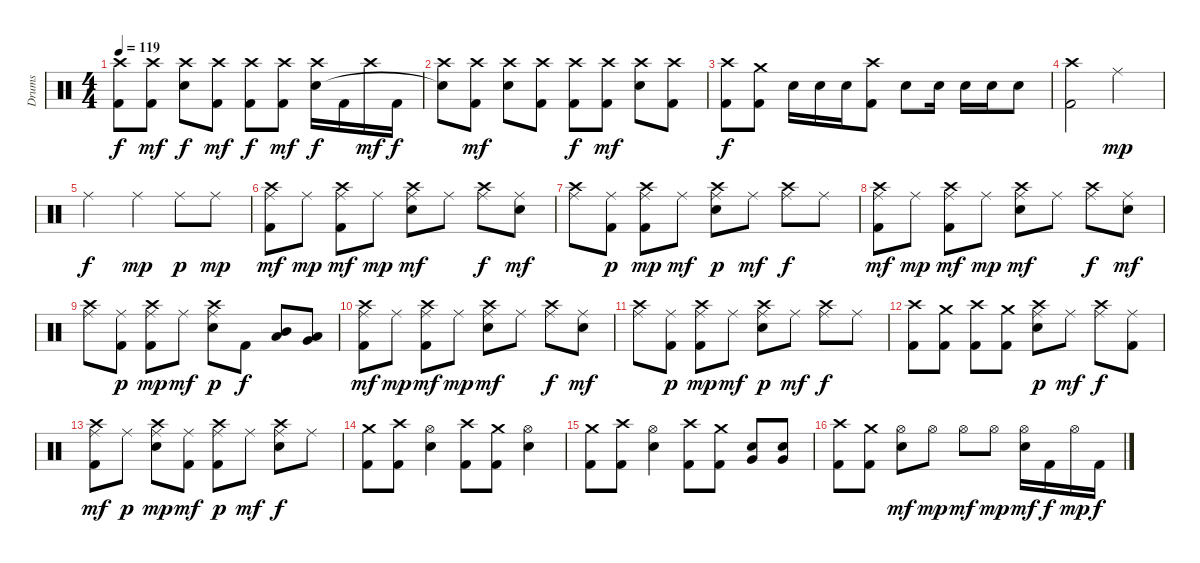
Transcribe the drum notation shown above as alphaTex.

\track ("Drums" "Drums") {instrument percussion}
\staff {score}
\articulation defaults
\ts (4 4)
\tempo 119
\clef neutral
\ks c
("Crash high (hit)" "Kick (hit) 2").8{dy f} ("Crash high (hit)" "Kick (hit) 2").8{dy mf} ("Crash high (hit)" "Electric Snare (hit)").8{dy f} ("Crash high (hit)" "Kick (hit) 2").8{dy mf} ("Crash high (hit)" "Kick (hit) 2").8{dy f} ("Crash high (hit)" "Kick (hit) 2").8{dy mf} ("Crash high (hit)" "Electric Snare (hit)").16{dy f} "Kick (hit) 2".16 "Crash high (hit)".16{dy mf} "Kick (hit) 2".16{dy f} |
("Crash high (hit)" "Snare (hit)"{t}).8 ("Crash high (hit)" "Kick (hit) 2").8{dy mf} ("Crash high (hit)" "Electric Snare (hit)").8 ("Crash high (hit)" "Kick (hit) 2").8 ("Crash high (hit)" "Kick (hit) 2").8{dy f} ("Crash high (hit)" "Kick (hit) 2").8{dy mf} ("Crash high (hit)" "Electric Snare (hit)").8 ("Crash high (hit)" "Kick (hit) 2").8 |
("Crash high (hit)" "Kick (hit) 2").8{dy f} ("Crash medium (hit)" "Kick (hit) 2").8 "Electric Snare (hit)".16 "Electric Snare (hit)".16 "Electric Snare (hit)".16 ("Crash high (hit)" "Kick (hit) 2").8 "Electric Snare (hit)".8 "Electric Snare (hit)".16 "Electric Snare (hit)".16 "Electric Snare (hit)".16 "Electric Snare (hit)".8 |
("Crash high (hit)" "Kick (hit) 2").2 "Ride (middle)".2{dy mp} |
"Ride (middle)".2{dy f} "Ride (middle)".4{dy mp} "Ride (middle)".8{dy p} "Ride (middle)".8{dy mp} |
("Crash high (hit)" "Ride (middle)" "Kick (hit) 2").8{dy mf} "Ride (middle)".8{dy mp} ("Crash high (hit)" "Ride (middle)" "Kick (hit) 2").8{dy mf} "Ride (middle)".8{dy mp} ("Crash high (hit)" "Ride (middle)" "Electric Snare (hit)").8{dy mf} "Ride (middle)".8 ("Crash high (hit)" "Ride (middle)").8{dy f} ("Ride (middle)" "Electric Snare (hit)").8{dy mf} |
("Crash high (hit)" "Ride (middle)").8 ("Ride (middle)" "Kick (hit) 2").8{dy p} ("Crash high (hit)" "Ride (middle)" "Kick (hit) 2").8{dy mp} "Ride (middle)".8{dy mf} ("Crash high (hit)" "Ride (middle)" "Electric Snare (hit)").8{dy p} "Ride (middle)".8{dy mf} ("Crash high (hit)" "Ride (middle)").8{dy f} "Ride (middle)".8 |
("Crash high (hit)" "Ride (middle)" "Kick (hit) 2").8{dy mf} "Ride (middle)".8{dy mp} ("Crash high (hit)" "Ride (middle)" "Kick (hit) 2").8{dy mf} "Ride (middle)".8{dy mp} ("Crash high (hit)" "Ride (middle)" "Electric Snare (hit)").8{dy mf} "Ride (middle)".8 ("Crash high (hit)" "Ride (middle)").8{dy f} ("Ride (middle)" "Electric Snare (hit)").8{dy mf} |
("Crash high (hit)" "Ride (middle)").8 ("Ride (middle)" "Kick (hit) 2").8{dy p} ("Crash high (hit)" "Ride (middle)" "Kick (hit) 2").8{dy mp} "Ride (middle)".8{dy mf} ("Crash high (hit)" "Ride (middle)" "Electric Snare (hit)").8{dy p} "Kick (hit) 2".8{dy f} ("Mid Tom (hit)" "Low Tom (hit)").8{bd 120} ("Low Tom (hit)" "Very Low Tom (hit)").8{bd 120} |
("Crash high (hit)" "Ride (middle)" "Kick (hit) 2").8{dy mf} "Ride (middle)".8{dy mp} ("Crash high (hit)" "Ride (middle)" "Kick (hit) 2").8{dy mf} "Ride (middle)".8{dy mp} ("Crash high (hit)" "Ride (middle)" "Electric Snare (hit)").8{dy mf} "Ride (middle)".8 ("Crash high (hit)" "Ride (middle)").8{dy f} ("Ride (middle)" "Electric Snare (hit)").8{dy mf} |
("Crash high (hit)" "Ride (middle)").8 ("Ride (middle)" "Kick (hit) 2").8{dy p} ("Crash high (hit)" "Ride (middle)" "Kick (hit) 2").8{dy mp} "Ride (middle)".8{dy mf} ("Crash high (hit)" "Ride (middle)" "Electric Snare (hit)").8{dy p} "Ride (middle)".8{dy mf} ("Crash high (hit)" "Ride (middle)").8{dy f} "Ride (middle)".8 |
("Crash high (hit)" "Kick (hit) 2").8 ("Crash medium (hit)" "Kick (hit) 2").8 ("Crash high (hit)" "Kick (hit) 2").8 ("Crash medium (hit)" "Kick (hit) 2").8 ("Crash high (hit)" "Ride (middle)" "Electric Snare (hit)").8{dy p} "Ride (middle)".8{dy mf} ("Crash high (hit)" "Ride (middle)").8{dy f} ("Ride (middle)" "Kick (hit) 2").8 |
("Crash high (hit)" "Ride (middle)" "Kick (hit) 2").8{dy mf} "Ride (middle)".8{dy p} ("Crash high (hit)" "Ride (middle)" "Electric Snare (hit)").8{dy mp} ("Ride (middle)" "Kick (hit) 2").8{dy mf} ("Crash high (hit)" "Ride (middle)" "Kick (hit) 2").8{dy p} "Ride (middle)".8{dy mf} ("Crash high (hit)" "Ride (middle)" "Electric Snare (hit)").8{dy f} "Ride (middle)".8 |
("Crash medium (hit)" "Kick (hit) 2").8 ("Crash high (hit)" "Kick (hit) 2").8 ("Hi-Hat (open)" "Electric Snare (hit)").4 ("Crash high (hit)" "Kick (hit) 2").8 ("Crash medium (hit)" "Kick (hit) 2").8 ("Hi-Hat (open)" "Electric Snare (hit)").4 |
("Crash medium (hit)" "Kick (hit) 2").8 ("Crash high (hit)" "Kick (hit) 2").8 ("Hi-Hat (open)" "Electric Snare (hit)").4 ("Crash high (hit)" "Kick (hit) 2").8 ("Crash medium (hit)" "Kick (hit) 2").8 ("Very Low Tom (hit)" "Electric Snare (hit)").8 ("Very Low Tom (hit)" "Electric Snare (hit)").8 |
("Crash high (hit)" "Kick (hit) 2").8 ("Crash medium (hit)" "Kick (hit) 2").8 ("Hi-Hat (open)" "Electric Snare (hit)").8{dy mf} "Hi-Hat (open)".8{dy mp} "Hi-Hat (open)".8{dy mf} "Hi-Hat (open)".8{dy mp} ("Hi-Hat (open)" "Electric Snare (hit)").16{dy mf} "Kick (hit) 2".16{dy f} "Hi-Hat (open)".16{dy mp} "Kick (hit) 2".16{dy f}
